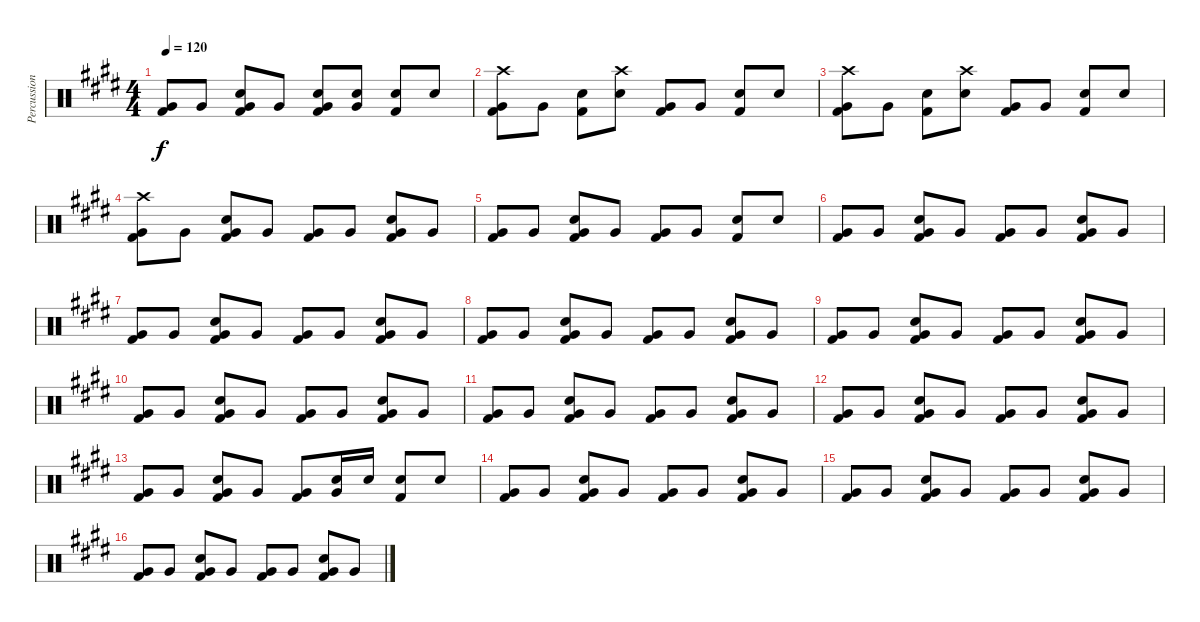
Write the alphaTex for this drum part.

\track ("Percussion" "Percussion") {instrument percussion}
\staff {score}
\articulation defaults
\ts (4 4)
\tempo 120
\clef neutral
\ks e
("Very Low Tom (hit)" "Kick (hit) 2").8{dy f} "Very Low Tom (hit)".8 ("Snare (hit) 2" "Very Low Tom (hit)" "Kick (hit) 2").8 "Very Low Tom (hit)".8 ("Snare (hit) 2" "Very Low Tom (hit)" "Kick (hit) 2").8 ("Snare (hit) 2" "Very Low Tom (hit)").8 ("Snare (hit) 2" "Kick (hit) 2").8 "Snare (hit) 2".8 |
("Crash high (hit)" "Very Low Tom (hit)" "Kick (hit) 2").8 "Very Low Tom (hit)".8 ("Snare (hit) 2" "Kick (hit) 2").8 ("Crash high (hit)" "Snare (hit) 2").8 ("Very Low Tom (hit)" "Kick (hit) 2").8 "Very Low Tom (hit)".8 ("Snare (hit) 2" "Kick (hit) 2").8 "Snare (hit) 2".8 |
("Crash high (hit)" "Very Low Tom (hit)" "Kick (hit) 2").8 "Very Low Tom (hit)".8 ("Snare (hit) 2" "Kick (hit) 2").8 ("Crash high (hit)" "Snare (hit) 2").8 ("Very Low Tom (hit)" "Kick (hit) 2").8 "Very Low Tom (hit)".8 ("Snare (hit) 2" "Kick (hit) 2").8 "Snare (hit) 2".8 |
("Crash high (hit)" "Very Low Tom (hit)" "Kick (hit) 2").8 "Very Low Tom (hit)".8 ("Snare (hit) 2" "Very Low Tom (hit)" "Kick (hit) 2").8 "Very Low Tom (hit)".8 ("Very Low Tom (hit)" "Kick (hit) 2").8 "Very Low Tom (hit)".8 ("Snare (hit) 2" "Very Low Tom (hit)" "Kick (hit) 2").8 "Very Low Tom (hit)".8 |
("Very Low Tom (hit)" "Kick (hit) 2").8 "Very Low Tom (hit)".8 ("Snare (hit) 2" "Very Low Tom (hit)" "Kick (hit) 2").8 "Very Low Tom (hit)".8 ("Very Low Tom (hit)" "Kick (hit) 2").8 "Very Low Tom (hit)".8 ("Snare (hit) 2" "Kick (hit) 2").8 "Snare (hit) 2".8 |
("Very Low Tom (hit)" "Kick (hit) 2").8 "Very Low Tom (hit)".8 ("Snare (hit) 2" "Very Low Tom (hit)" "Kick (hit) 2").8 "Very Low Tom (hit)".8 ("Very Low Tom (hit)" "Kick (hit) 2").8 "Very Low Tom (hit)".8 ("Snare (hit) 2" "Very Low Tom (hit)" "Kick (hit) 2").8 "Very Low Tom (hit)".8 |
("Very Low Tom (hit)" "Kick (hit) 2").8 "Very Low Tom (hit)".8 ("Snare (hit) 2" "Very Low Tom (hit)" "Kick (hit) 2").8 "Very Low Tom (hit)".8 ("Very Low Tom (hit)" "Kick (hit) 2").8 "Very Low Tom (hit)".8 ("Snare (hit) 2" "Very Low Tom (hit)" "Kick (hit) 2").8 "Very Low Tom (hit)".8 |
("Very Low Tom (hit)" "Kick (hit) 2").8 "Very Low Tom (hit)".8 ("Snare (hit) 2" "Very Low Tom (hit)" "Kick (hit) 2").8 "Very Low Tom (hit)".8 ("Very Low Tom (hit)" "Kick (hit) 2").8 "Very Low Tom (hit)".8 ("Snare (hit) 2" "Very Low Tom (hit)" "Kick (hit) 2").8 "Very Low Tom (hit)".8 |
("Very Low Tom (hit)" "Kick (hit) 2").8 "Very Low Tom (hit)".8 ("Snare (hit) 2" "Very Low Tom (hit)" "Kick (hit) 2").8 "Very Low Tom (hit)".8 ("Very Low Tom (hit)" "Kick (hit) 2").8 "Very Low Tom (hit)".8 ("Snare (hit) 2" "Very Low Tom (hit)" "Kick (hit) 2").8 "Very Low Tom (hit)".8 |
("Very Low Tom (hit)" "Kick (hit) 2").8 "Very Low Tom (hit)".8 ("Snare (hit) 2" "Very Low Tom (hit)" "Kick (hit) 2").8 "Very Low Tom (hit)".8 ("Very Low Tom (hit)" "Kick (hit) 2").8 "Very Low Tom (hit)".8 ("Snare (hit) 2" "Very Low Tom (hit)" "Kick (hit) 2").8 "Very Low Tom (hit)".8 |
("Very Low Tom (hit)" "Kick (hit) 2").8 "Very Low Tom (hit)".8 ("Snare (hit) 2" "Very Low Tom (hit)" "Kick (hit) 2").8 "Very Low Tom (hit)".8 ("Very Low Tom (hit)" "Kick (hit) 2").8 "Very Low Tom (hit)".8 ("Snare (hit) 2" "Very Low Tom (hit)" "Kick (hit) 2").8 "Very Low Tom (hit)".8 |
("Very Low Tom (hit)" "Kick (hit) 2").8 "Very Low Tom (hit)".8 ("Snare (hit) 2" "Very Low Tom (hit)" "Kick (hit) 2").8 "Very Low Tom (hit)".8 ("Very Low Tom (hit)" "Kick (hit) 2").8 "Very Low Tom (hit)".8 ("Snare (hit) 2" "Very Low Tom (hit)" "Kick (hit) 2").8 "Very Low Tom (hit)".8 |
("Very Low Tom (hit)" "Kick (hit) 2").8 "Very Low Tom (hit)".8 ("Snare (hit) 2" "Very Low Tom (hit)" "Kick (hit) 2").8 "Very Low Tom (hit)".8 ("Very Low Tom (hit)" "Kick (hit) 2").8 ("Snare (hit) 2" "Very Low Tom (hit)").16 "Snare (hit) 2".16 ("Snare (hit) 2" "Kick (hit) 2").8 "Snare (hit) 2".8 |
("Very Low Tom (hit)" "Kick (hit) 2").8 "Very Low Tom (hit)".8 ("Snare (hit) 2" "Very Low Tom (hit)" "Kick (hit) 2").8 "Very Low Tom (hit)".8 ("Very Low Tom (hit)" "Kick (hit) 2").8 "Very Low Tom (hit)".8 ("Snare (hit) 2" "Very Low Tom (hit)" "Kick (hit) 2").8 "Very Low Tom (hit)".8 |
("Very Low Tom (hit)" "Kick (hit) 2").8 "Very Low Tom (hit)".8 ("Snare (hit) 2" "Very Low Tom (hit)" "Kick (hit) 2").8 "Very Low Tom (hit)".8 ("Very Low Tom (hit)" "Kick (hit) 2").8 "Very Low Tom (hit)".8 ("Snare (hit) 2" "Very Low Tom (hit)" "Kick (hit) 2").8 "Very Low Tom (hit)".8 |
("Very Low Tom (hit)" "Kick (hit) 2").8 "Very Low Tom (hit)".8 ("Snare (hit) 2" "Very Low Tom (hit)" "Kick (hit) 2").8 "Very Low Tom (hit)".8 ("Very Low Tom (hit)" "Kick (hit) 2").8 "Very Low Tom (hit)".8 ("Snare (hit) 2" "Very Low Tom (hit)" "Kick (hit) 2").8 "Very Low Tom (hit)".8
